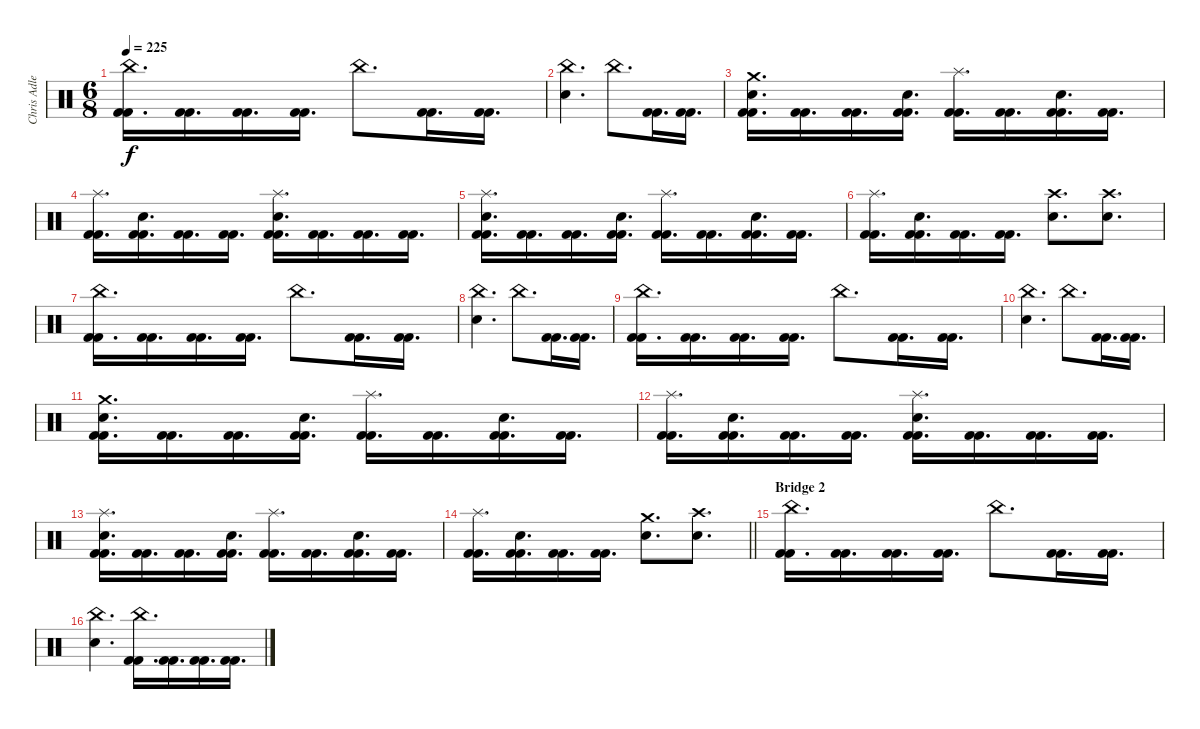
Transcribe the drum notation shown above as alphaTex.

\track ("Chris Adler" "Chris Adle") {instrument percussion}
\staff {score}
\articulation defaults
\ts (6 8)
\tempo 225
\clef neutral
\ks c
("China (hit)" "Kick (hit) 2" "Kick (hit) 2").16{d dy f} ("Kick (hit) 2" "Kick (hit) 2").16{d} ("Kick (hit) 2" "Kick (hit) 2").16{d} ("Kick (hit) 2" "Kick (hit) 2").16{d} "China (hit)".8{d} ("Kick (hit) 2" "Kick (hit) 2").16{d} ("Kick (hit) 2" "Kick (hit) 2").16{d} |
("China (hit)" "Electric Snare (hit)").4{d} "China (hit)".8{d} ("Kick (hit) 2" "Kick (hit) 2").16{d} ("Kick (hit) 2" "Kick (hit) 2").16{d} |
("Crash medium (hit)" "Electric Snare (hit)" "Kick (hit) 2" "Kick (hit) 2").16{d} ("Kick (hit) 2" "Kick (hit) 2").16{d} ("Kick (hit) 2" "Kick (hit) 2").16{d} ("Electric Snare (hit)" "Kick (hit) 2" "Kick (hit) 2").16{d} ("Splash (hit)" "Kick (hit) 2" "Kick (hit) 2").16{d} ("Kick (hit) 2" "Kick (hit) 2").16{d} ("Electric Snare (hit)" "Kick (hit) 2" "Kick (hit) 2").16{d} ("Kick (hit) 2" "Kick (hit) 2").16{d} |
("Splash (hit)" "Kick (hit) 2" "Kick (hit) 2").16{d} ("Electric Snare (hit)" "Kick (hit) 2" "Kick (hit) 2").16{d} ("Kick (hit) 2" "Kick (hit) 2").16{d} ("Kick (hit) 2" "Kick (hit) 2").16{d} ("Splash (hit)" "Electric Snare (hit)" "Kick (hit) 2" "Kick (hit) 2").16{d} ("Kick (hit) 2" "Kick (hit) 2").16{d} ("Kick (hit) 2" "Kick (hit) 2").16{d} ("Kick (hit) 2" "Kick (hit) 2").16{d} |
("Splash (hit)" "Electric Snare (hit)" "Kick (hit) 2" "Kick (hit) 2").16{d} ("Kick (hit) 2" "Kick (hit) 2").16{d} ("Kick (hit) 2" "Kick (hit) 2").16{d} ("Electric Snare (hit)" "Kick (hit) 2" "Kick (hit) 2").16{d} ("Splash (hit)" "Kick (hit) 2" "Kick (hit) 2").16{d} ("Kick (hit) 2" "Kick (hit) 2").16{d} ("Electric Snare (hit)" "Kick (hit) 2" "Kick (hit) 2").16{d} ("Kick (hit) 2" "Kick (hit) 2").16{d} |
("Splash (hit)" "Kick (hit) 2" "Kick (hit) 2").16{d} ("Electric Snare (hit)" "Kick (hit) 2" "Kick (hit) 2").16{d} ("Kick (hit) 2" "Kick (hit) 2").16{d} ("Kick (hit) 2" "Kick (hit) 2").16{d} ("Crash high (hit)" "Electric Snare (hit)").8{d} ("Crash high (hit)" "Electric Snare (hit)").8{d} |
("China (hit)" "Kick (hit) 2" "Kick (hit) 2").16{d} ("Kick (hit) 2" "Kick (hit) 2").16{d} ("Kick (hit) 2" "Kick (hit) 2").16{d} ("Kick (hit) 2" "Kick (hit) 2").16{d} "China (hit)".8{d} ("Kick (hit) 2" "Kick (hit) 2").16{d} ("Kick (hit) 2" "Kick (hit) 2").16{d} |
("China (hit)" "Electric Snare (hit)").4{d} "China (hit)".8{d} ("Kick (hit) 2" "Kick (hit) 2").16{d} ("Kick (hit) 2" "Kick (hit) 2").16{d} |
("China (hit)" "Kick (hit) 2" "Kick (hit) 2").16{d} ("Kick (hit) 2" "Kick (hit) 2").16{d} ("Kick (hit) 2" "Kick (hit) 2").16{d} ("Kick (hit) 2" "Kick (hit) 2").16{d} "China (hit)".8{d} ("Kick (hit) 2" "Kick (hit) 2").16{d} ("Kick (hit) 2" "Kick (hit) 2").16{d} |
("China (hit)" "Electric Snare (hit)").4{d} "China (hit)".8{d} ("Kick (hit) 2" "Kick (hit) 2").16{d} ("Kick (hit) 2" "Kick (hit) 2").16{d} |
("Crash medium (hit)" "Electric Snare (hit)" "Kick (hit) 2" "Kick (hit) 2").16{d} ("Kick (hit) 2" "Kick (hit) 2").16{d} ("Kick (hit) 2" "Kick (hit) 2").16{d} ("Electric Snare (hit)" "Kick (hit) 2" "Kick (hit) 2").16{d} ("Splash (hit)" "Kick (hit) 2" "Kick (hit) 2").16{d} ("Kick (hit) 2" "Kick (hit) 2").16{d} ("Electric Snare (hit)" "Kick (hit) 2" "Kick (hit) 2").16{d} ("Kick (hit) 2" "Kick (hit) 2").16{d} |
("Splash (hit)" "Kick (hit) 2" "Kick (hit) 2").16{d} ("Electric Snare (hit)" "Kick (hit) 2" "Kick (hit) 2").16{d} ("Kick (hit) 2" "Kick (hit) 2").16{d} ("Kick (hit) 2" "Kick (hit) 2").16{d} ("Splash (hit)" "Electric Snare (hit)" "Kick (hit) 2" "Kick (hit) 2").16{d} ("Kick (hit) 2" "Kick (hit) 2").16{d} ("Kick (hit) 2" "Kick (hit) 2").16{d} ("Kick (hit) 2" "Kick (hit) 2").16{d} |
("Splash (hit)" "Electric Snare (hit)" "Kick (hit) 2" "Kick (hit) 2").16{d} ("Kick (hit) 2" "Kick (hit) 2").16{d} ("Kick (hit) 2" "Kick (hit) 2").16{d} ("Electric Snare (hit)" "Kick (hit) 2" "Kick (hit) 2").16{d} ("Splash (hit)" "Kick (hit) 2" "Kick (hit) 2").16{d} ("Kick (hit) 2" "Kick (hit) 2").16{d} ("Electric Snare (hit)" "Kick (hit) 2" "Kick (hit) 2").16{d} ("Kick (hit) 2" "Kick (hit) 2").16{d} |
\barLineRight lightlight
("Splash (hit)" "Kick (hit) 2" "Kick (hit) 2").16{d} ("Electric Snare (hit)" "Kick (hit) 2" "Kick (hit) 2").16{d} ("Kick (hit) 2" "Kick (hit) 2").16{d} ("Kick (hit) 2" "Kick (hit) 2").16{d} ("Crash medium (hit)" "Electric Snare (hit)").8{d} ("Crash high (hit)" "Electric Snare (hit)").8{d} |
\section ("" "Bridge 2")
("China (hit)" "Kick (hit) 2" "Kick (hit) 2").16{d} ("Kick (hit) 2" "Kick (hit) 2").16{d} ("Kick (hit) 2" "Kick (hit) 2").16{d} ("Kick (hit) 2" "Kick (hit) 2").16{d} "China (hit)".8{d} ("Kick (hit) 2" "Kick (hit) 2").16{d} ("Kick (hit) 2" "Kick (hit) 2").16{d} |
("China (hit)" "Electric Snare (hit)").4{d} ("China (hit)" "Kick (hit) 2" "Kick (hit) 2").16{d} ("Kick (hit) 2" "Kick (hit) 2").16{d} ("Kick (hit) 2" "Kick (hit) 2").16{d} ("Kick (hit) 2" "Kick (hit) 2").16{d}
